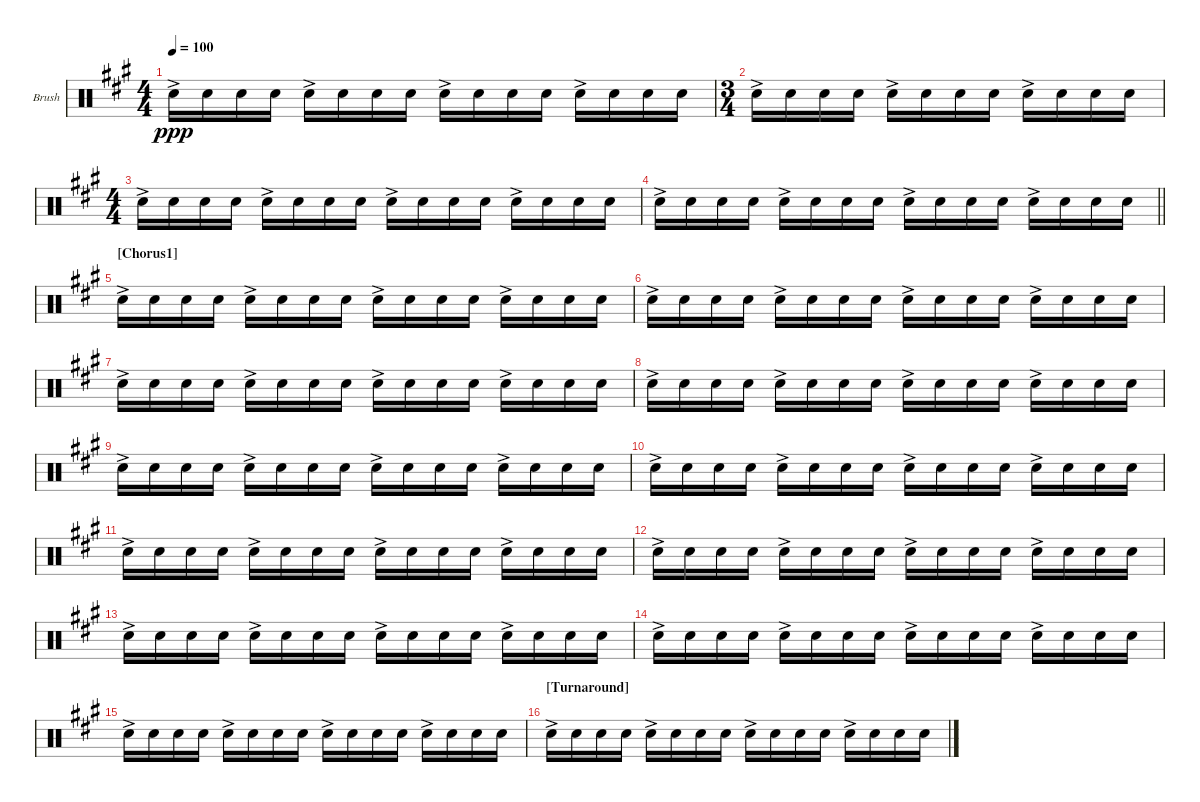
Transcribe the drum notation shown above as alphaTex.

\bracketExtendMode groupsimilarinstruments
\firstSystemTrackNameOrientation horizontal
\otherSystemsTrackNameOrientation horizontal
\track ("Brush Snare" "Brush") {instrument percussion}
\staff {score}
\articulation defaults
\ts (4 4)
\tempo 100
\clef neutral
\ks f#minor "Snare (hit) 2"{ac}.16{dy ppp} "Snare (hit) 2".16 "Snare (hit) 2".16 "Snare (hit) 2".16 "Snare (hit) 2"{ac}.16 "Snare (hit) 2".16 "Snare (hit) 2".16 "Snare (hit) 2".16 "Snare (hit) 2"{ac}.16 "Snare (hit) 2".16 "Snare (hit) 2".16 "Snare (hit) 2".16 "Snare (hit) 2"{ac}.16 "Snare (hit) 2".16 "Snare (hit) 2".16 "Snare (hit) 2".16
|
\ts (3 4)
"Snare (hit) 2"{ac}.16 "Snare (hit) 2".16 "Snare (hit) 2".16 "Snare (hit) 2".16 "Snare (hit) 2"{ac}.16 "Snare (hit) 2".16 "Snare (hit) 2".16 "Snare (hit) 2".16 "Snare (hit) 2"{ac}.16 "Snare (hit) 2".16 "Snare (hit) 2".16 "Snare (hit) 2".16 |
\ts (4 4)
"Snare (hit) 2"{ac}.16 "Snare (hit) 2".16 "Snare (hit) 2".16 "Snare (hit) 2".16 "Snare (hit) 2"{ac}.16 "Snare (hit) 2".16 "Snare (hit) 2".16 "Snare (hit) 2".16 "Snare (hit) 2"{ac}.16 "Snare (hit) 2".16 "Snare (hit) 2".16 "Snare (hit) 2".16 "Snare (hit) 2"{ac}.16 "Snare (hit) 2".16 "Snare (hit) 2".16 "Snare (hit) 2".16 |
\barLineRight lightlight "Snare (hit) 2"{ac}.16 "Snare (hit) 2".16 "Snare (hit) 2".16 "Snare (hit) 2".16 "Snare (hit) 2"{ac}.16 "Snare (hit) 2".16 "Snare (hit) 2".16 "Snare (hit) 2".16 "Snare (hit) 2"{ac}.16 "Snare (hit) 2".16 "Snare (hit) 2".16 "Snare (hit) 2".16 "Snare (hit) 2"{ac}.16 "Snare (hit) 2".16 "Snare (hit) 2".16 "Snare (hit) 2".16
|
\section ("" "[Chorus1]")
"Snare (hit) 2"{ac}.16 "Snare (hit) 2".16 "Snare (hit) 2".16 "Snare (hit) 2".16 "Snare (hit) 2"{ac}.16 "Snare (hit) 2".16 "Snare (hit) 2".16 "Snare (hit) 2".16 "Snare (hit) 2"{ac}.16 "Snare (hit) 2".16 "Snare (hit) 2".16 "Snare (hit) 2".16 "Snare (hit) 2"{ac}.16 "Snare (hit) 2".16 "Snare (hit) 2".16 "Snare (hit) 2".16 |
"Snare (hit) 2"{ac}.16 "Snare (hit) 2".16 "Snare (hit) 2".16 "Snare (hit) 2".16 "Snare (hit) 2"{ac}.16 "Snare (hit) 2".16 "Snare (hit) 2".16 "Snare (hit) 2".16 "Snare (hit) 2"{ac}.16 "Snare (hit) 2".16 "Snare (hit) 2".16 "Snare (hit) 2".16 "Snare (hit) 2"{ac}.16 "Snare (hit) 2".16 "Snare (hit) 2".16 "Snare (hit) 2".16 |
"Snare (hit) 2"{ac}.16 "Snare (hit) 2".16 "Snare (hit) 2".16 "Snare (hit) 2".16 "Snare (hit) 2"{ac}.16 "Snare (hit) 2".16 "Snare (hit) 2".16 "Snare (hit) 2".16 "Snare (hit) 2"{ac}.16 "Snare (hit) 2".16 "Snare (hit) 2".16 "Snare (hit) 2".16 "Snare (hit) 2"{ac}.16 "Snare (hit) 2".16 "Snare (hit) 2".16 "Snare (hit) 2".16 |
"Snare (hit) 2"{ac}.16 "Snare (hit) 2".16 "Snare (hit) 2".16 "Snare (hit) 2".16 "Snare (hit) 2"{ac}.16 "Snare (hit) 2".16 "Snare (hit) 2".16 "Snare (hit) 2".16 "Snare (hit) 2"{ac}.16 "Snare (hit) 2".16 "Snare (hit) 2".16 "Snare (hit) 2".16 "Snare (hit) 2"{ac}.16 "Snare (hit) 2".16 "Snare (hit) 2".16 "Snare (hit) 2".16 |
"Snare (hit) 2"{ac}.16 "Snare (hit) 2".16 "Snare (hit) 2".16 "Snare (hit) 2".16 "Snare (hit) 2"{ac}.16 "Snare (hit) 2".16 "Snare (hit) 2".16 "Snare (hit) 2".16 "Snare (hit) 2"{ac}.16 "Snare (hit) 2".16 "Snare (hit) 2".16 "Snare (hit) 2".16 "Snare (hit) 2"{ac}.16 "Snare (hit) 2".16 "Snare (hit) 2".16 "Snare (hit) 2".16 |
"Snare (hit) 2"{ac}.16 "Snare (hit) 2".16 "Snare (hit) 2".16 "Snare (hit) 2".16 "Snare (hit) 2"{ac}.16 "Snare (hit) 2".16 "Snare (hit) 2".16 "Snare (hit) 2".16 "Snare (hit) 2"{ac}.16 "Snare (hit) 2".16 "Snare (hit) 2".16 "Snare (hit) 2".16 "Snare (hit) 2"{ac}.16 "Snare (hit) 2".16 "Snare (hit) 2".16 "Snare (hit) 2".16 |
"Snare (hit) 2"{ac}.16 "Snare (hit) 2".16 "Snare (hit) 2".16 "Snare (hit) 2".16 "Snare (hit) 2"{ac}.16 "Snare (hit) 2".16 "Snare (hit) 2".16 "Snare (hit) 2".16 "Snare (hit) 2"{ac}.16 "Snare (hit) 2".16 "Snare (hit) 2".16 "Snare (hit) 2".16 "Snare (hit) 2"{ac}.16 "Snare (hit) 2".16 "Snare (hit) 2".16 "Snare (hit) 2".16 |
"Snare (hit) 2"{ac}.16 "Snare (hit) 2".16 "Snare (hit) 2".16 "Snare (hit) 2".16 "Snare (hit) 2"{ac}.16 "Snare (hit) 2".16 "Snare (hit) 2".16 "Snare (hit) 2".16 "Snare (hit) 2"{ac}.16 "Snare (hit) 2".16 "Snare (hit) 2".16 "Snare (hit) 2".16 "Snare (hit) 2"{ac}.16 "Snare (hit) 2".16 "Snare (hit) 2".16 "Snare (hit) 2".16 |
"Snare (hit) 2"{ac}.16 "Snare (hit) 2".16 "Snare (hit) 2".16 "Snare (hit) 2".16 "Snare (hit) 2"{ac}.16 "Snare (hit) 2".16 "Snare (hit) 2".16 "Snare (hit) 2".16 "Snare (hit) 2"{ac}.16 "Snare (hit) 2".16 "Snare (hit) 2".16 "Snare (hit) 2".16 "Snare (hit) 2"{ac}.16 "Snare (hit) 2".16 "Snare (hit) 2".16 "Snare (hit) 2".16 |
"Snare (hit) 2"{ac}.16 "Snare (hit) 2".16 "Snare (hit) 2".16 "Snare (hit) 2".16 "Snare (hit) 2"{ac}.16 "Snare (hit) 2".16 "Snare (hit) 2".16 "Snare (hit) 2".16 "Snare (hit) 2"{ac}.16 "Snare (hit) 2".16 "Snare (hit) 2".16 "Snare (hit) 2".16 "Snare (hit) 2"{ac}.16 "Snare (hit) 2".16 "Snare (hit) 2".16 "Snare (hit) 2".16 |
"Snare (hit) 2"{ac}.16 "Snare (hit) 2".16 "Snare (hit) 2".16 "Snare (hit) 2".16 "Snare (hit) 2"{ac}.16 "Snare (hit) 2".16 "Snare (hit) 2".16 "Snare (hit) 2".16 "Snare (hit) 2"{ac}.16 "Snare (hit) 2".16 "Snare (hit) 2".16 "Snare (hit) 2".16 "Snare (hit) 2"{ac}.16 "Snare (hit) 2".16 "Snare (hit) 2".16 "Snare (hit) 2".16 |
\section ("" "[Turnaround]")
"Snare (hit) 2"{ac}.16 "Snare (hit) 2".16 "Snare (hit) 2".16 "Snare (hit) 2".16 "Snare (hit) 2"{ac}.16 "Snare (hit) 2".16 "Snare (hit) 2".16 "Snare (hit) 2".16 "Snare (hit) 2"{ac}.16 "Snare (hit) 2".16 "Snare (hit) 2".16 "Snare (hit) 2".16 "Snare (hit) 2"{ac}.16 "Snare (hit) 2".16 "Snare (hit) 2".16 "Snare (hit) 2".16
